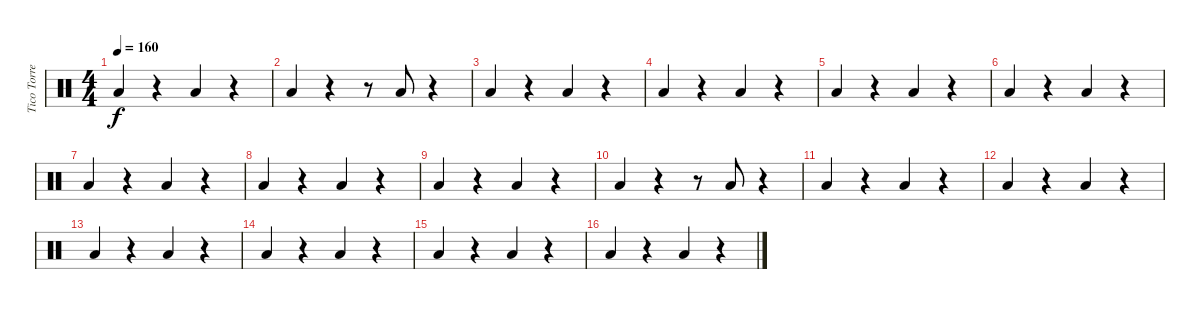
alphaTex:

\track ("Tico Torres" "Tico Torre") {instrument percussion}
\staff {score}
\articulation defaults
\ts (4 4)
\tempo 160
\clef neutral
\ks c "Low Floor Tom (hit)".4{dy f}
r.4 "Low Floor Tom (hit)".4 r.4 |
"Low Floor Tom (hit)".4 r.4 r.8 "Low Floor Tom (hit)".8 r.4 |
"Low Floor Tom (hit)".4 r.4 "Low Floor Tom (hit)".4 r.4 |
"Low Floor Tom (hit)".4 r.4 "Low Floor Tom (hit)".4 r.4 |
"Low Floor Tom (hit)".4 r.4 "Low Floor Tom (hit)".4 r.4 |
"Low Floor Tom (hit)".4 r.4 "Low Floor Tom (hit)".4 r.4 |
"Low Floor Tom (hit)".4 r.4 "Low Floor Tom (hit)".4 r.4 |
"Low Floor Tom (hit)".4 r.4 "Low Floor Tom (hit)".4 r.4 |
"Low Floor Tom (hit)".4 r.4 "Low Floor Tom (hit)".4 r.4 |
"Low Floor Tom (hit)".4 r.4 r.8 "Low Floor Tom (hit)".8 r.4 |
"Low Floor Tom (hit)".4 r.4 "Low Floor Tom (hit)".4 r.4 |
"Low Floor Tom (hit)".4 r.4 "Low Floor Tom (hit)".4 r.4 |
"Low Floor Tom (hit)".4 r.4 "Low Floor Tom (hit)".4 r.4 |
"Low Floor Tom (hit)".4 r.4 "Low Floor Tom (hit)".4 r.4 |
"Low Floor Tom (hit)".4 r.4 "Low Floor Tom (hit)".4 r.4 |
"Low Floor Tom (hit)".4 r.4 "Low Floor Tom (hit)".4 r.4
